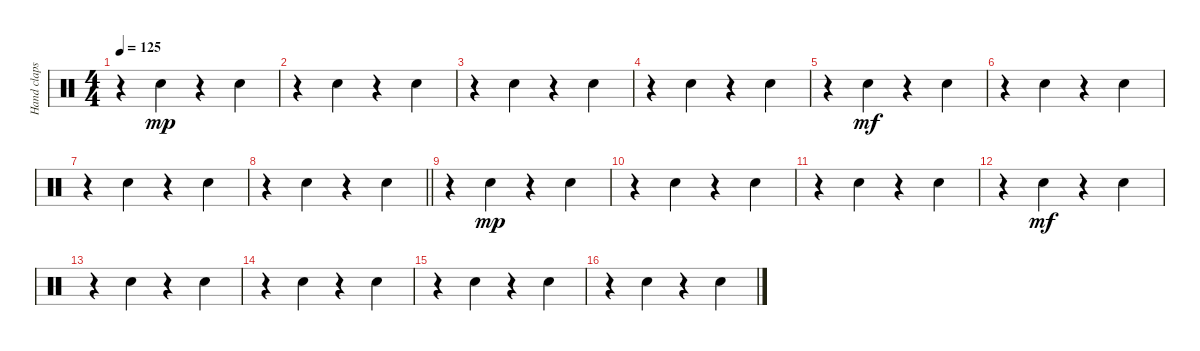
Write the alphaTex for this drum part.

\track ("Hand claps" "Hand claps") {instrument percussion}
\staff {score}
\articulation defaults
\ts (4 4)
\tempo 125
\clef neutral
\ks c
r.4{dy mp} "Hand Clap (hit)".4 r.4 "Hand Clap (hit)".4 |
r.4 "Hand Clap (hit)".4 r.4 "Hand Clap (hit)".4 |
r.4 "Hand Clap (hit)".4 r.4 "Hand Clap (hit)".4 |
r.4 "Hand Clap (hit)".4 r.4 "Hand Clap (hit)".4 |
r.4 "Hand Clap (hit)".4{dy mf} r.4 "Hand Clap (hit)".4 |
r.4 "Hand Clap (hit)".4 r.4 "Hand Clap (hit)".4 |
r.4 "Hand Clap (hit)".4 r.4 "Hand Clap (hit)".4 |
\barLineRight lightlight
r.4 "Hand Clap (hit)".4 r.4 "Hand Clap (hit)".4 |
r.4 "Hand Clap (hit)".4{dy mp} r.4 "Hand Clap (hit)".4 |
r.4 "Hand Clap (hit)".4 r.4 "Hand Clap (hit)".4 |
r.4 "Hand Clap (hit)".4 r.4 "Hand Clap (hit)".4 |
r.4 "Hand Clap (hit)".4{dy mf} r.4 "Hand Clap (hit)".4 |
r.4 "Hand Clap (hit)".4 r.4 "Hand Clap (hit)".4 |
r.4 "Hand Clap (hit)".4 r.4 "Hand Clap (hit)".4 |
r.4 "Hand Clap (hit)".4 r.4 "Hand Clap (hit)".4 |
r.4 "Hand Clap (hit)".4 r.4 "Hand Clap (hit)".4
